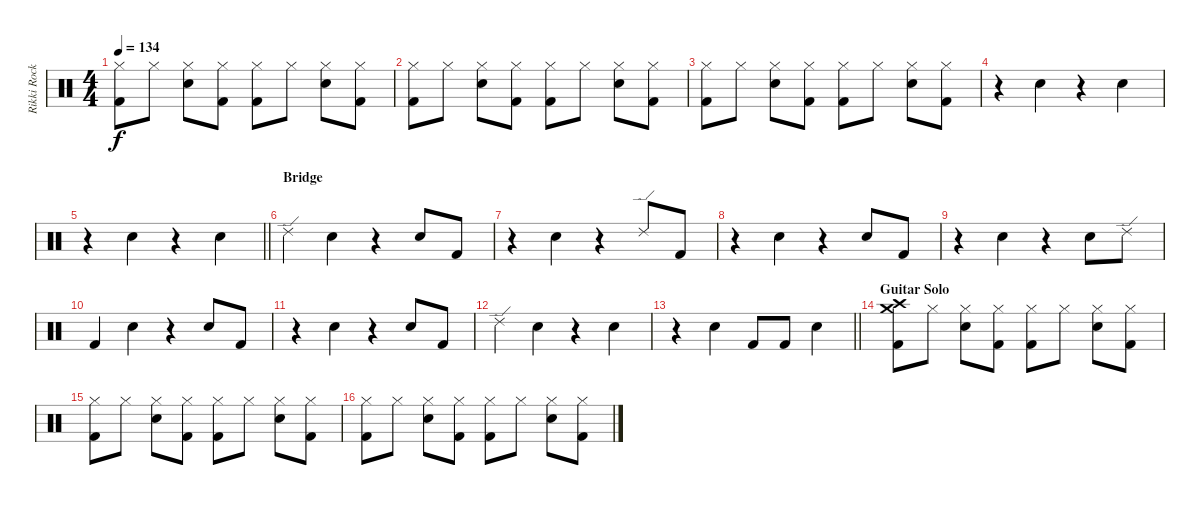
\track ("Rikki Rocket" "Rikki Rock") {instrument percussion}
\staff {score}
\articulation defaults
\ts (4 4)
\tempo 134
\clef neutral
\ks c
("Hi-Hat (closed)" "Kick (hit) 2").8{dy f} "Hi-Hat (closed)".8 ("Hi-Hat (closed)" "Snare (hit) 2").8 ("Hi-Hat (closed)" "Kick (hit) 2").8 ("Hi-Hat (closed)" "Kick (hit) 2").8 "Hi-Hat (closed)".8 ("Hi-Hat (closed)" "Snare (hit) 2").8 ("Hi-Hat (closed)" "Kick (hit) 2").8 |
("Hi-Hat (closed)" "Kick (hit) 2").8 "Hi-Hat (closed)".8 ("Hi-Hat (closed)" "Snare (hit) 2").8 ("Hi-Hat (closed)" "Kick (hit) 2").8 ("Hi-Hat (closed)" "Kick (hit) 2").8 "Hi-Hat (closed)".8 ("Hi-Hat (closed)" "Snare (hit) 2").8 ("Hi-Hat (closed)" "Kick (hit) 2").8 |
("Hi-Hat (closed)" "Kick (hit) 2").8 "Hi-Hat (closed)".8 ("Hi-Hat (closed)" "Snare (hit) 2").8 ("Hi-Hat (closed)" "Kick (hit) 2").8 ("Hi-Hat (closed)" "Kick (hit) 2").8 "Hi-Hat (closed)".8 ("Hi-Hat (closed)" "Snare (hit) 2").8 ("Hi-Hat (closed)" "Kick (hit) 2").8 |
r.4 "Snare (hit) 2".4 r.4 "Snare (hit) 2".4 |
\barLineRight lightlight
r.4 "Snare (hit) 2".4 r.4 "Snare (hit) 2".4 |
\section ("" "Bridge")
"Ride (edge) 2".4 "Snare (hit) 2".4 r.4 "Snare (hit) 2".8 "Kick (hit) 2".8 |
r.4 "Snare (hit) 2".4 r.4 "Ride (edge) 2".8 "Kick (hit) 2".8 |
r.4 "Snare (hit) 2".4 r.4 "Snare (hit) 2".8 "Kick (hit) 2".8 |
r.4 "Snare (hit) 2".4 r.4 "Snare (hit) 2".8 "Ride (edge) 2".8 |
"Kick (hit) 2".4 "Snare (hit) 2".4 r.4 "Snare (hit) 2".8 "Kick (hit) 2".8 |
r.4 "Snare (hit) 2".4 r.4 "Snare (hit) 2".8 "Kick (hit) 2".8 |
"Ride (edge) 2".4 "Snare (hit) 2".4 r.4 "Snare (hit) 2".4 |
\barLineRight lightlight
r.4 "Snare (hit) 2".4 "Kick (hit) 2".8 "Kick (hit) 2".8 "Snare (hit) 2".4 |
\section ("" "Guitar Solo")
("Crash medium (hit)" "Crash high (hit)" "Kick (hit) 2").8 "Hi-Hat (closed)".8 ("Hi-Hat (closed)" "Snare (hit) 2").8 ("Hi-Hat (closed)" "Kick (hit) 2").8 ("Hi-Hat (closed)" "Kick (hit) 2").8 "Hi-Hat (closed)".8 ("Hi-Hat (closed)" "Snare (hit) 2").8 ("Hi-Hat (closed)" "Kick (hit) 2").8 |
("Hi-Hat (closed)" "Kick (hit) 2").8 "Hi-Hat (closed)".8 ("Hi-Hat (closed)" "Snare (hit) 2").8 ("Hi-Hat (closed)" "Kick (hit) 2").8 ("Hi-Hat (closed)" "Kick (hit) 2").8 "Hi-Hat (closed)".8 ("Hi-Hat (closed)" "Snare (hit) 2").8 ("Hi-Hat (closed)" "Kick (hit) 2").8 |
("Hi-Hat (closed)" "Kick (hit) 2").8 "Hi-Hat (closed)".8 ("Hi-Hat (closed)" "Snare (hit) 2").8 ("Hi-Hat (closed)" "Kick (hit) 2").8 ("Hi-Hat (closed)" "Kick (hit) 2").8 "Hi-Hat (closed)".8 ("Hi-Hat (closed)" "Snare (hit) 2").8 ("Hi-Hat (closed)" "Kick (hit) 2").8
